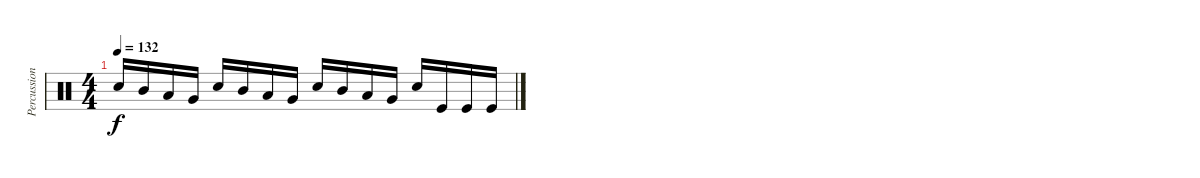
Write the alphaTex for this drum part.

\track ("Percussion" "Percussion") {instrument percussion}
\staff {score}
\articulation defaults
\ts (4 4)
\tempo 132
\clef neutral
\ks c "Electric Snare (hit)".16{dy f} "Mid Tom (hit)".16 "Low Tom (hit)".16 "Very Low Tom (hit)".16 "Electric Snare (hit)".16 "Mid Tom (hit)".16 "Low Tom (hit)".16 "Very Low Tom (hit)".16 "Electric Snare (hit)".16 "Mid Tom (hit)".16 "Low Tom (hit)".16 "Very Low Tom (hit)".16 "Electric Snare (hit)".16 "Kick (hit)".16 "Kick (hit)".16 "Kick (hit)".16
